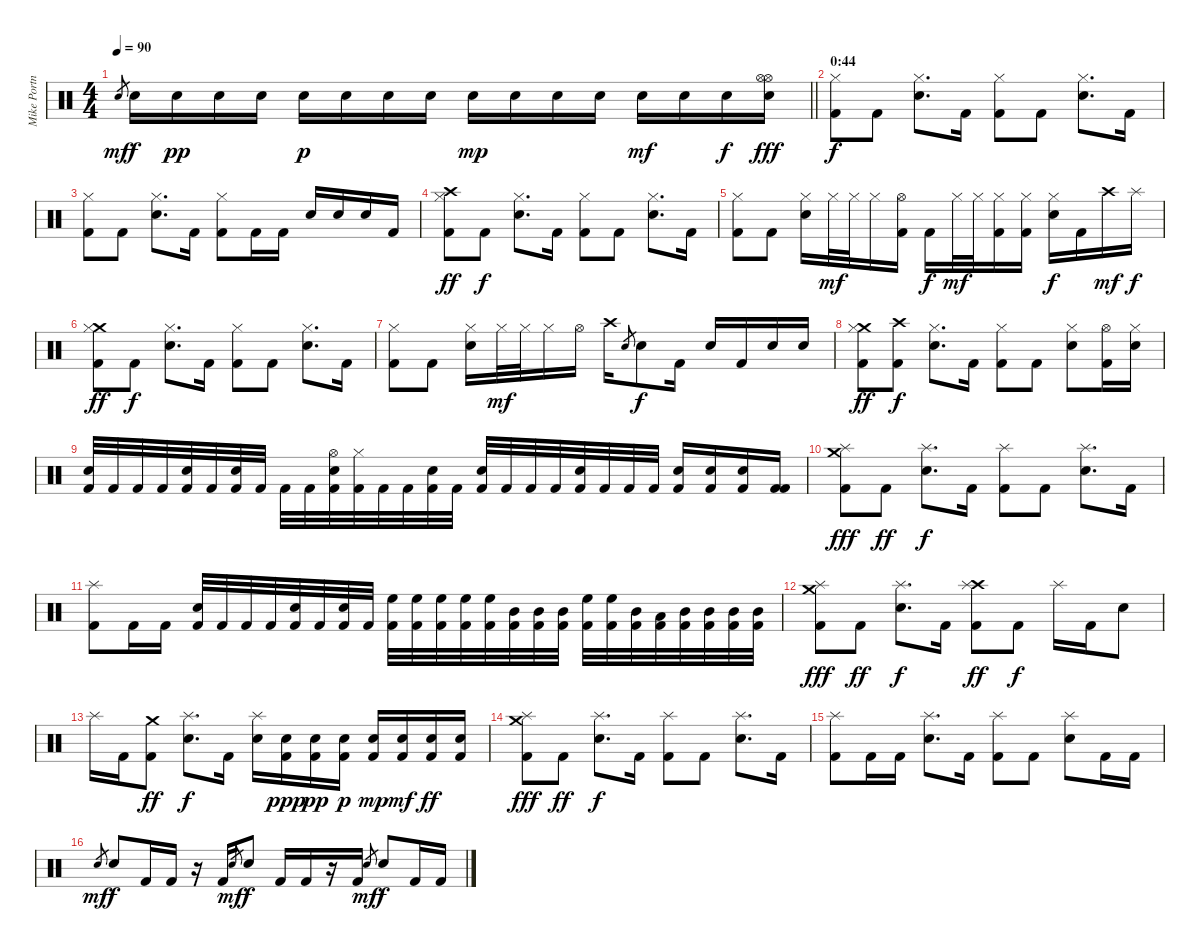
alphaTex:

\track ("Mike Portnoy (Drums)" "Mike Portn") {instrument percussion}
\staff {score}
\articulation defaults
\ts (4 4)
\tempo 90
\clef neutral
\barLineRight lightlight
\ks c "Electric Snare (hit)".8{gr dy mf} "Electric Snare (hit)".16{dy f} "Electric Snare (hit)".16{dy pp} "Electric Snare (hit)".16 "Electric Snare (hit)".16 "Electric Snare (hit)".16{dy p} "Electric Snare (hit)".16 "Electric Snare (hit)".16 "Electric Snare (hit)".16 "Electric Snare (hit)".16{dy mp} "Electric Snare (hit)".16 "Electric Snare (hit)".16 "Electric Snare (hit)".16 "Electric Snare (hit)".16{dy mf} "Electric Snare (hit)".16 "Electric Snare (hit)".16{dy f}
("Hi-Hat (open)" "Hi-Hat (open)" "Electric Snare (hit)").16{dy fff} |
\section ("" "0:44")
("Hi-Hat (closed)" "Kick (hit) 2").8{dy f} "Kick (hit) 2".8 ("Hi-Hat (closed)" "Electric Snare (hit)").8{d} "Kick (hit) 2".16 ("Hi-Hat (closed)" "Kick (hit) 2").8 "Kick (hit) 2".8 ("Hi-Hat (closed)" "Electric Snare (hit)").8{d} "Kick (hit) 2".16 |
("Hi-Hat (closed)" "Kick (hit) 2").8 "Kick (hit) 2".8 ("Hi-Hat (closed)" "Electric Snare (hit)").8{d} "Kick (hit) 2".16 ("Hi-Hat (closed)" "Kick (hit) 2").8 "Kick (hit) 2".16 "Kick (hit) 2".16 "Electric Snare (hit)".16 "Electric Snare (hit)".16 "Electric Snare (hit)".16 "Kick (hit) 2".16 |
("Crash high (hit)" "Hi-Hat (closed)" "Kick (hit) 2").8{dy ff} "Kick (hit) 2".8{dy f} ("Hi-Hat (closed)" "Electric Snare (hit)").8{d} "Kick (hit) 2".16 ("Hi-Hat (closed)" "Kick (hit) 2").8 "Kick (hit) 2".8 ("Hi-Hat (closed)" "Electric Snare (hit)").8{d} "Kick (hit) 2".16 |
("Hi-Hat (closed)" "Kick (hit) 2").8 "Kick (hit) 2".8 ("Hi-Hat (closed)" "Electric Snare (hit)").16 "Hi-Hat (closed)".32{dy mf} "Hi-Hat (closed)".32 "Hi-Hat (closed)".16 ("Hi-Hat (open)" "Kick (hit) 2").16 "Kick (hit) 2".16{dy f} "Hi-Hat (closed)".32{dy mf} "Hi-Hat (closed)".32 ("Hi-Hat (closed)" "Kick (hit) 2").16 ("Hi-Hat (closed)" "Kick (hit) 2").16 ("Hi-Hat (closed)" "Electric Snare (hit)").16{dy f} "Kick (hit) 2".16 "Crash high (hit)".16{dy mf} "Splash (hit)".16{dy f} |
("Crash medium (hit)" "Hi-Hat (closed)" "Kick (hit) 2").8{dy ff} "Kick (hit) 2".8{dy f} ("Hi-Hat (closed)" "Electric Snare (hit)").8{d} "Kick (hit) 2".16 ("Hi-Hat (closed)" "Kick (hit) 2").8 "Kick (hit) 2".8 ("Hi-Hat (closed)" "Electric Snare (hit)").8{d} "Kick (hit) 2".16 |
("Hi-Hat (closed)" "Kick (hit) 2").8 "Kick (hit) 2".8 ("Hi-Hat (closed)" "Electric Snare (hit)").16 "Hi-Hat (closed)".32{dy mf} "Hi-Hat (closed)".32 "Hi-Hat (closed)".16 "Hi-Hat (open)".16 "Crash high (hit)".16 "Electric Snare (hit)".8{gr} "Electric Snare (hit)".8{dy f} "Kick (hit) 2".16 "Electric Snare (hit)".16 "Kick (hit) 2".16 "Electric Snare (hit)".16 "Electric Snare (hit)".16 |
("Crash medium (hit)" "Hi-Hat (closed)" "Kick (hit) 2").8{dy ff} ("Crash high (hit)" "Kick (hit) 2").8{dy f} ("Hi-Hat (closed)" "Electric Snare (hit)").8{d} "Kick (hit) 2".16 ("Hi-Hat (closed)" "Kick (hit) 2").8 "Kick (hit) 2".8 ("Hi-Hat (closed)" "Electric Snare (hit)").8 ("Hi-Hat (open)" "Kick (hit) 2").16 ("Hi-Hat (closed)" "Electric Snare (hit)").16 |
("Electric Snare (hit)" "Kick (hit) 2").32 "Kick (hit) 2".32 "Kick (hit) 2".32 "Kick (hit) 2".32 ("Electric Snare (hit)" "Kick (hit) 2").32 "Kick (hit) 2".32 ("Electric Snare (hit)" "Kick (hit) 2").32 "Kick (hit) 2".32 "Kick (hit) 2".32 "Kick (hit) 2".32 ("Hi-Hat (open)" "Electric Snare (hit)" "Kick (hit) 2").32 ("Hi-Hat (closed)" "Kick (hit) 2").32 "Kick (hit) 2".32 "Kick (hit) 2".32 ("Electric Snare (hit)" "Kick (hit) 2").32 "Kick (hit) 2".32 ("Electric Snare (hit)" "Kick (hit) 2").32 "Kick (hit) 2".32 "Kick (hit) 2".32 "Kick (hit) 2".32 ("Electric Snare (hit)" "Kick (hit) 2").32 "Kick (hit) 2".32 "Kick (hit) 2".32 "Kick (hit) 2".32 ("Electric Snare (hit)" "Kick (hit) 2").16 ("Electric Snare (hit)" "Kick (hit) 2").16 ("Electric Snare (hit)" "Kick (hit) 2").16 ("Kick (hit) 2" "Kick (hit) 2").16 |
("Crash medium (hit)" "Splash (hit)" "Kick (hit) 2").8{dy fff} "Kick (hit) 2".8{dy ff} ("Splash (hit)" "Electric Snare (hit)").8{d dy f} "Kick (hit) 2".16 ("Splash (hit)" "Kick (hit) 2").8 "Kick (hit) 2".8 ("Splash (hit)" "Electric Snare (hit)").8{d} "Kick (hit) 2".16 |
("Splash (hit)" "Kick (hit) 2").8 "Kick (hit) 2".16 "Kick (hit) 2".16 ("Electric Snare (hit)" "Kick (hit) 2").32 "Kick (hit) 2".32 "Kick (hit) 2".32 "Kick (hit) 2".32 ("Electric Snare (hit)" "Kick (hit) 2").32 "Kick (hit) 2".32 ("Electric Snare (hit)" "Kick (hit) 2").32 "Kick (hit) 2".32 ("High Floor Tom (hit)" "Kick (hit) 2").32 ("High Floor Tom (hit)" "Kick (hit) 2").32 ("High Floor Tom (hit)" "Kick (hit) 2").32 ("High Floor Tom (hit)" "Kick (hit) 2").32 ("High Floor Tom (hit)" "Kick (hit) 2").32 ("Mid Tom (hit)" "Kick (hit) 2").32 ("Mid Tom (hit)" "Kick (hit) 2").32 ("Mid Tom (hit)" "Kick (hit) 2").32 ("High Floor Tom (hit)" "Kick (hit) 2").32 ("High Floor Tom (hit)" "Kick (hit) 2").32 ("Mid Tom (hit)" "Kick (hit) 2").32 ("Low Tom (hit)" "Kick (hit) 2").32 ("Mid Tom (hit)" "Kick (hit) 2").32 ("Mid Tom (hit)" "Kick (hit) 2").32 ("Mid Tom (hit)" "Kick (hit) 2").32 ("Mid Tom (hit)" "Kick (hit) 2").32 |
("Crash medium (hit)" "Splash (hit)" "Kick (hit) 2").8{dy fff} "Kick (hit) 2".8{dy ff} ("Splash (hit)" "Electric Snare (hit)").8{d dy f} "Kick (hit) 2".16 ("Crash high (hit)" "Splash (hit)" "Kick (hit) 2").8{dy ff} "Kick (hit) 2".8{dy f} "Splash (hit)".16 "Kick (hit) 2".16 "Electric Snare (hit)".8 |
"Splash (hit)".16 "Kick (hit) 2".16 ("Crash medium (hit)" "Kick (hit) 2").8{dy ff} ("Splash (hit)" "Electric Snare (hit)").8{d dy f} "Kick (hit) 2".16 ("Splash (hit)" "Electric Snare (hit)").16 ("Electric Snare (hit)" "Kick (hit) 2").16{dy ppp} ("Electric Snare (hit)" "Kick (hit) 2").16{dy pp} ("Electric Snare (hit)" "Kick (hit) 2").16{dy p} ("Electric Snare (hit)" "Kick (hit) 2").16{dy mp} ("Electric Snare (hit)" "Kick (hit) 2").16{dy mf} ("Electric Snare (hit)" "Kick (hit) 2").16{dy ff} ("Electric Snare (hit)" "Kick (hit) 2").16 |
("Crash medium (hit)" "Splash (hit)" "Kick (hit) 2").8{dy fff} "Kick (hit) 2".8{dy ff} ("Splash (hit)" "Electric Snare (hit)").8{d dy f} "Kick (hit) 2".16 ("Splash (hit)" "Kick (hit) 2").8 "Kick (hit) 2".8 ("Splash (hit)" "Electric Snare (hit)").8{d} "Kick (hit) 2".16 |
("Splash (hit)" "Kick (hit) 2").8 "Kick (hit) 2".16 "Kick (hit) 2".16 ("Splash (hit)" "Electric Snare (hit)").8{d} "Kick (hit) 2".16 ("Splash (hit)" "Kick (hit) 2").8 "Kick (hit) 2".8 ("Splash (hit)" "Electric Snare (hit)").8 "Kick (hit) 2".16 "Kick (hit) 2".16 |
"Electric Snare (hit)".8{gr dy mf} "Electric Snare (hit)".8{dy f} "Kick (hit) 2".16 "Kick (hit) 2".16 r.16 "Kick (hit) 2".16 "Electric Snare (hit)".8{gr dy mf} "Electric Snare (hit)".8{dy f} "Kick (hit) 2".16 "Kick (hit) 2".16 r.16 "Kick (hit) 2".16 "Electric Snare (hit)".8{gr dy mf} "Electric Snare (hit)".8{dy f} "Kick (hit) 2".16 "Kick (hit) 2".16
